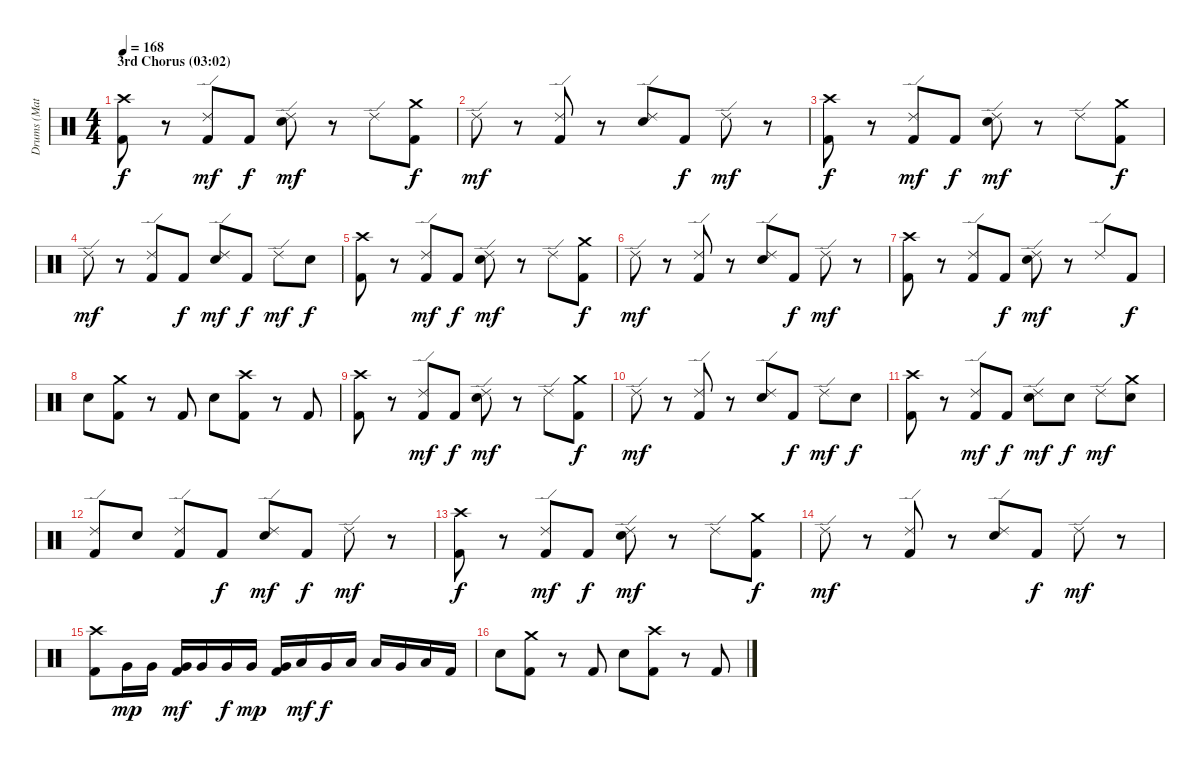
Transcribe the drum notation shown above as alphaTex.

\track ("Drums (Matt Sorum)" "Drums (Mat") {instrument percussion}
\staff {score}
\articulation defaults
\ts (4 4)
\section ("" "3rd Chorus (03:02)")
\tempo 168
\clef neutral
\ks c
("Crash high (hit)" "Kick (hit) 2").8{dy f} r.8 ("Ride (edge) 2" "Kick (hit) 2").8{dy mf} "Kick (hit) 2".8{dy f} ("Ride (edge) 2" "Electric Snare (hit)").8{dy mf} r.8 "Ride (edge) 2".8 ("Crash medium (hit)" "Kick (hit) 2").8{dy f} |
"Ride (edge) 2".8{dy mf} r.8 ("Ride (edge) 2" "Kick (hit) 2").8 r.8 ("Ride (edge) 2" "Electric Snare (hit)").8 "Kick (hit) 2".8{dy f} "Ride (edge) 2".8{dy mf} r.8 |
("Crash high (hit)" "Kick (hit) 2").8{dy f} r.8 ("Ride (edge) 2" "Kick (hit) 2").8{dy mf} "Kick (hit) 2".8{dy f} ("Ride (edge) 2" "Electric Snare (hit)").8{dy mf} r.8 "Ride (edge) 2".8 ("Crash medium (hit)" "Kick (hit) 2").8{dy f} |
"Ride (edge) 2".8{dy mf} r.8 ("Ride (edge) 2" "Kick (hit) 2").8 "Kick (hit) 2".8{dy f} ("Ride (edge) 2" "Electric Snare (hit)").8{dy mf} "Kick (hit) 2".8{dy f} "Ride (edge) 2".8{dy mf} "Electric Snare (hit)".8{dy f} |
("Crash high (hit)" "Kick (hit) 2").8 r.8 ("Ride (edge) 2" "Kick (hit) 2").8{dy mf} "Kick (hit) 2".8{dy f} ("Ride (edge) 2" "Electric Snare (hit)").8{dy mf} r.8 "Ride (edge) 2".8 ("Crash medium (hit)" "Kick (hit) 2").8{dy f} |
"Ride (edge) 2".8{dy mf} r.8 ("Ride (edge) 2" "Kick (hit) 2").8 r.8 ("Ride (edge) 2" "Electric Snare (hit)").8 "Kick (hit) 2".8{dy f} "Ride (edge) 2".8{dy mf} r.8 |
("Crash high (hit)" "Kick (hit) 2").8 r.8 ("Ride (edge) 2" "Kick (hit) 2").8 "Kick (hit) 2".8{dy f} ("Ride (edge) 2" "Electric Snare (hit)").8{dy mf} r.8 "Ride (edge) 2".8 "Kick (hit) 2".8{dy f} |
"Electric Snare (hit)".8 ("Crash medium (hit)" "Kick (hit) 2").8 r.8 "Kick (hit) 2".8 "Electric Snare (hit)".8 ("Crash high (hit)" "Kick (hit) 2").8 r.8 "Kick (hit) 2".8 |
("Crash high (hit)" "Kick (hit) 2").8 r.8 ("Ride (edge) 2" "Kick (hit) 2").8{dy mf} "Kick (hit) 2".8{dy f} ("Ride (edge) 2" "Electric Snare (hit)").8{dy mf} r.8 "Ride (edge) 2".8 ("Crash medium (hit)" "Kick (hit) 2").8{dy f} |
"Ride (edge) 2".8{dy mf} r.8 ("Ride (edge) 2" "Kick (hit) 2").8 r.8 ("Ride (edge) 2" "Electric Snare (hit)").8 "Kick (hit) 2".8{dy f} "Ride (edge) 2".8{dy mf} "Electric Snare (hit)".8{dy f} |
("Crash high (hit)" "Kick (hit) 2").8 r.8 ("Ride (edge) 2" "Kick (hit) 2").8{dy mf} "Kick (hit) 2".8{dy f} ("Ride (edge) 2" "Electric Snare (hit)").8{dy mf} "Electric Snare (hit)".8{dy f} "Ride (edge) 2".8{dy mf} ("Crash medium (hit)" "Electric Snare (hit)").8 |
("Ride (edge) 2" "Kick (hit) 2").8 "Electric Snare (hit)".8 ("Ride (edge) 2" "Kick (hit) 2").8 "Kick (hit) 2".8{dy f} ("Ride (edge) 2" "Electric Snare (hit)").8{dy mf} "Kick (hit) 2".8{dy f} "Ride (edge) 2".8{dy mf} r.8 |
("Crash high (hit)" "Kick (hit) 2").8{dy f} r.8 ("Ride (edge) 2" "Kick (hit) 2").8{dy mf} "Kick (hit) 2".8{dy f} ("Ride (edge) 2" "Electric Snare (hit)").8{dy mf} r.8 "Ride (edge) 2".8 ("Crash medium (hit)" "Kick (hit) 2").8{dy f} |
"Ride (edge) 2".8{dy mf} r.8 ("Ride (edge) 2" "Kick (hit) 2").8 r.8 ("Ride (edge) 2" "Electric Snare (hit)").8 "Kick (hit) 2".8{dy f} "Ride (edge) 2".8{dy mf} r.8 |
("Crash high (hit)" "Kick (hit) 2").8 "Very Low Tom (hit)".16{dy mp} "Very Low Tom (hit)".16 ("Very Low Tom (hit)" "Kick (hit) 2").16{dy mf} "Very Low Tom (hit)".16 "Very Low Tom (hit)".16{dy f} "Very Low Tom (hit)".16{dy mp} ("Very Low Tom (hit)" "Kick (hit) 2").16 "Low Floor Tom (hit)".16{dy mf balance 12} "Very Low Tom (hit)".16{dy f balance 15} "Low Tom (hit)".16{balance 8} "Low Tom (hit)".16 "Very Low Tom (hit)".16{balance 5} "Low Floor Tom (hit)".16{balance 1} "Kick (hit) 2".16{balance 8} |
"Electric Snare (hit)".8 ("Crash medium (hit)" "Kick (hit) 2").8 r.8 "Kick (hit) 2".8 "Electric Snare (hit)".8 ("Crash high (hit)" "Kick (hit) 2").8 r.8 "Kick (hit) 2".8
